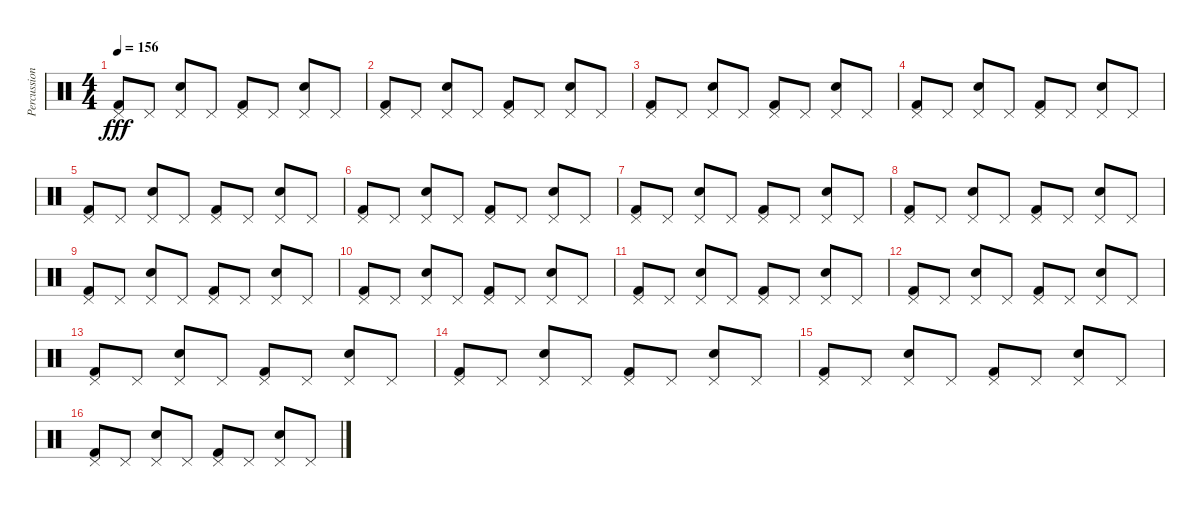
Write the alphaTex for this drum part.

\track ("Percussion" "Percussion") {instrument percussion}
\staff {score}
\articulation defaults
\ts (4 4)
\tempo 156
\clef neutral
\ks c
("Pedal Hi-Hat (hit)" "Kick (hit) 2").8{dy fff} "Pedal Hi-Hat (hit)".8 ("Pedal Hi-Hat (hit)" "Electric Snare (hit)").8 "Pedal Hi-Hat (hit)".8 ("Pedal Hi-Hat (hit)" "Kick (hit) 2").8 "Pedal Hi-Hat (hit)".8 ("Pedal Hi-Hat (hit)" "Electric Snare (hit)").8 "Pedal Hi-Hat (hit)".8 |
("Pedal Hi-Hat (hit)" "Kick (hit) 2").8 "Pedal Hi-Hat (hit)".8 ("Pedal Hi-Hat (hit)" "Electric Snare (hit)").8 "Pedal Hi-Hat (hit)".8 ("Pedal Hi-Hat (hit)" "Kick (hit) 2").8 "Pedal Hi-Hat (hit)".8 ("Pedal Hi-Hat (hit)" "Electric Snare (hit)").8 "Pedal Hi-Hat (hit)".8 |
("Pedal Hi-Hat (hit)" "Kick (hit) 2").8 "Pedal Hi-Hat (hit)".8 ("Pedal Hi-Hat (hit)" "Electric Snare (hit)").8 "Pedal Hi-Hat (hit)".8 ("Pedal Hi-Hat (hit)" "Kick (hit) 2").8 "Pedal Hi-Hat (hit)".8 ("Pedal Hi-Hat (hit)" "Electric Snare (hit)").8 "Pedal Hi-Hat (hit)".8 |
("Pedal Hi-Hat (hit)" "Kick (hit) 2").8 "Pedal Hi-Hat (hit)".8 ("Pedal Hi-Hat (hit)" "Electric Snare (hit)").8 "Pedal Hi-Hat (hit)".8 ("Pedal Hi-Hat (hit)" "Kick (hit) 2").8 "Pedal Hi-Hat (hit)".8 ("Pedal Hi-Hat (hit)" "Electric Snare (hit)").8 "Pedal Hi-Hat (hit)".8 |
("Pedal Hi-Hat (hit)" "Kick (hit) 2").8 "Pedal Hi-Hat (hit)".8 ("Pedal Hi-Hat (hit)" "Electric Snare (hit)").8 "Pedal Hi-Hat (hit)".8 ("Pedal Hi-Hat (hit)" "Kick (hit) 2").8 "Pedal Hi-Hat (hit)".8 ("Pedal Hi-Hat (hit)" "Electric Snare (hit)").8 "Pedal Hi-Hat (hit)".8 |
("Pedal Hi-Hat (hit)" "Kick (hit) 2").8 "Pedal Hi-Hat (hit)".8 ("Pedal Hi-Hat (hit)" "Electric Snare (hit)").8 "Pedal Hi-Hat (hit)".8 ("Pedal Hi-Hat (hit)" "Kick (hit) 2").8 "Pedal Hi-Hat (hit)".8 ("Pedal Hi-Hat (hit)" "Electric Snare (hit)").8 "Pedal Hi-Hat (hit)".8 |
("Pedal Hi-Hat (hit)" "Kick (hit) 2").8 "Pedal Hi-Hat (hit)".8 ("Pedal Hi-Hat (hit)" "Electric Snare (hit)").8 "Pedal Hi-Hat (hit)".8 ("Pedal Hi-Hat (hit)" "Kick (hit) 2").8 "Pedal Hi-Hat (hit)".8 ("Pedal Hi-Hat (hit)" "Electric Snare (hit)").8 "Pedal Hi-Hat (hit)".8 |
("Pedal Hi-Hat (hit)" "Kick (hit) 2").8 "Pedal Hi-Hat (hit)".8 ("Pedal Hi-Hat (hit)" "Electric Snare (hit)").8 "Pedal Hi-Hat (hit)".8 ("Pedal Hi-Hat (hit)" "Kick (hit) 2").8 "Pedal Hi-Hat (hit)".8 ("Pedal Hi-Hat (hit)" "Electric Snare (hit)").8 "Pedal Hi-Hat (hit)".8 |
("Pedal Hi-Hat (hit)" "Kick (hit) 2").8 "Pedal Hi-Hat (hit)".8 ("Pedal Hi-Hat (hit)" "Electric Snare (hit)").8 "Pedal Hi-Hat (hit)".8 ("Pedal Hi-Hat (hit)" "Kick (hit) 2").8 "Pedal Hi-Hat (hit)".8 ("Pedal Hi-Hat (hit)" "Electric Snare (hit)").8 "Pedal Hi-Hat (hit)".8 |
("Pedal Hi-Hat (hit)" "Kick (hit) 2").8 "Pedal Hi-Hat (hit)".8 ("Pedal Hi-Hat (hit)" "Electric Snare (hit)").8 "Pedal Hi-Hat (hit)".8 ("Pedal Hi-Hat (hit)" "Kick (hit) 2").8 "Pedal Hi-Hat (hit)".8 ("Pedal Hi-Hat (hit)" "Electric Snare (hit)").8 "Pedal Hi-Hat (hit)".8 |
("Pedal Hi-Hat (hit)" "Kick (hit) 2").8 "Pedal Hi-Hat (hit)".8 ("Pedal Hi-Hat (hit)" "Electric Snare (hit)").8 "Pedal Hi-Hat (hit)".8 ("Pedal Hi-Hat (hit)" "Kick (hit) 2").8 "Pedal Hi-Hat (hit)".8 ("Pedal Hi-Hat (hit)" "Electric Snare (hit)").8 "Pedal Hi-Hat (hit)".8 |
("Pedal Hi-Hat (hit)" "Kick (hit) 2").8 "Pedal Hi-Hat (hit)".8 ("Pedal Hi-Hat (hit)" "Electric Snare (hit)").8 "Pedal Hi-Hat (hit)".8 ("Pedal Hi-Hat (hit)" "Kick (hit) 2").8 "Pedal Hi-Hat (hit)".8 ("Pedal Hi-Hat (hit)" "Electric Snare (hit)").8 "Pedal Hi-Hat (hit)".8 |
("Pedal Hi-Hat (hit)" "Kick (hit) 2").8 "Pedal Hi-Hat (hit)".8 ("Pedal Hi-Hat (hit)" "Electric Snare (hit)").8 "Pedal Hi-Hat (hit)".8 ("Pedal Hi-Hat (hit)" "Kick (hit) 2").8 "Pedal Hi-Hat (hit)".8 ("Pedal Hi-Hat (hit)" "Electric Snare (hit)").8 "Pedal Hi-Hat (hit)".8 |
("Pedal Hi-Hat (hit)" "Kick (hit) 2").8 "Pedal Hi-Hat (hit)".8 ("Pedal Hi-Hat (hit)" "Electric Snare (hit)").8 "Pedal Hi-Hat (hit)".8 ("Pedal Hi-Hat (hit)" "Kick (hit) 2").8 "Pedal Hi-Hat (hit)".8 ("Pedal Hi-Hat (hit)" "Electric Snare (hit)").8 "Pedal Hi-Hat (hit)".8 |
("Pedal Hi-Hat (hit)" "Kick (hit) 2").8 "Pedal Hi-Hat (hit)".8 ("Pedal Hi-Hat (hit)" "Electric Snare (hit)").8 "Pedal Hi-Hat (hit)".8 ("Pedal Hi-Hat (hit)" "Kick (hit) 2").8 "Pedal Hi-Hat (hit)".8 ("Pedal Hi-Hat (hit)" "Electric Snare (hit)").8 "Pedal Hi-Hat (hit)".8 |
("Pedal Hi-Hat (hit)" "Kick (hit) 2").8 "Pedal Hi-Hat (hit)".8 ("Pedal Hi-Hat (hit)" "Electric Snare (hit)").8 "Pedal Hi-Hat (hit)".8 ("Pedal Hi-Hat (hit)" "Kick (hit) 2").8 "Pedal Hi-Hat (hit)".8 ("Pedal Hi-Hat (hit)" "Electric Snare (hit)").8 "Pedal Hi-Hat (hit)".8
